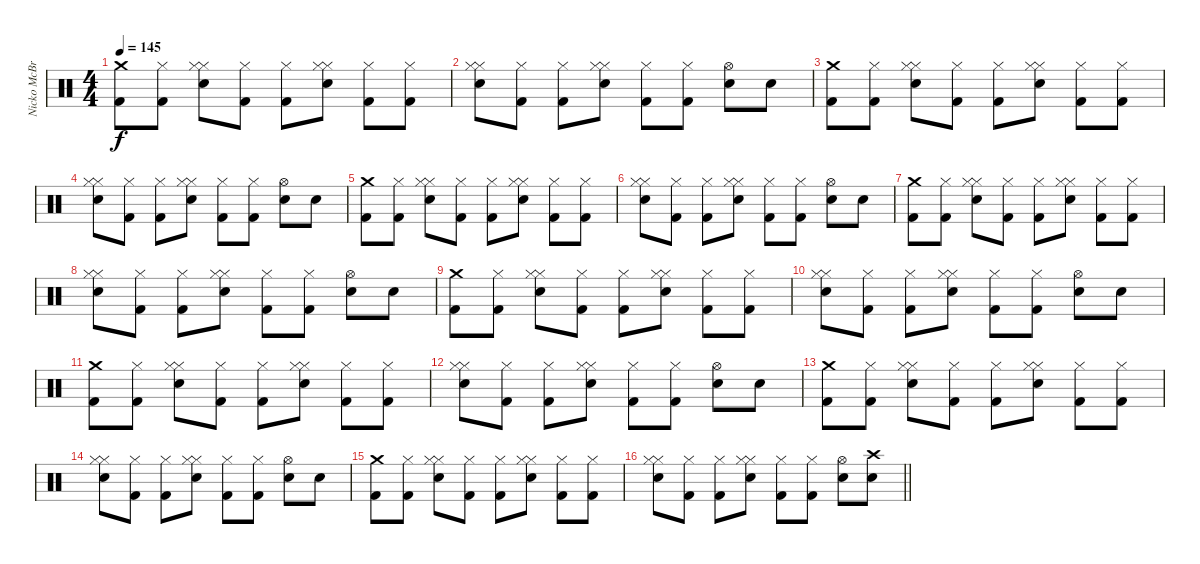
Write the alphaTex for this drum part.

\track ("Nicko McBrain" "Nicko McBr") {instrument percussion}
\staff {score}
\articulation defaults
\ts (4 4)
\tempo 145
\clef neutral
\ks c
("Crash medium (hit)" "Kick (hit) 2").8{dy f} ("Kick (hit) 2" "Hi-Hat (closed)").8 ("Snare (hit) 2" "Hi-Hat (closed)" "Hi-Hat (closed)").8 ("Kick (hit) 2" "Hi-Hat (closed)").8 ("Kick (hit) 2" "Hi-Hat (closed)").8 ("Snare (hit) 2" "Hi-Hat (closed)" "Hi-Hat (closed)").8 ("Kick (hit) 2" "Hi-Hat (closed)").8 ("Kick (hit) 2" "Hi-Hat (closed)").8 |
("Snare (hit) 2" "Hi-Hat (closed)" "Hi-Hat (closed)").8 ("Kick (hit) 2" "Hi-Hat (closed)").8 ("Kick (hit) 2" "Hi-Hat (closed)").8 ("Snare (hit) 2" "Hi-Hat (closed)" "Hi-Hat (closed)").8 ("Kick (hit) 2" "Hi-Hat (closed)").8 ("Kick (hit) 2" "Hi-Hat (closed)").8 ("Snare (hit) 2" "Hi-Hat (open)").8 "Snare (hit) 2".8 |
("Crash medium (hit)" "Kick (hit) 2").8 ("Kick (hit) 2" "Hi-Hat (closed)").8 ("Snare (hit) 2" "Hi-Hat (closed)" "Hi-Hat (closed)").8 ("Kick (hit) 2" "Hi-Hat (closed)").8 ("Kick (hit) 2" "Hi-Hat (closed)").8 ("Snare (hit) 2" "Hi-Hat (closed)" "Hi-Hat (closed)").8 ("Kick (hit) 2" "Hi-Hat (closed)").8 ("Kick (hit) 2" "Hi-Hat (closed)").8 |
("Snare (hit) 2" "Hi-Hat (closed)" "Hi-Hat (closed)").8 ("Kick (hit) 2" "Hi-Hat (closed)").8 ("Kick (hit) 2" "Hi-Hat (closed)").8 ("Snare (hit) 2" "Hi-Hat (closed)" "Hi-Hat (closed)").8 ("Kick (hit) 2" "Hi-Hat (closed)").8 ("Kick (hit) 2" "Hi-Hat (closed)").8 ("Snare (hit) 2" "Hi-Hat (open)").8 "Snare (hit) 2".8 |
("Crash medium (hit)" "Kick (hit) 2").8 ("Kick (hit) 2" "Hi-Hat (closed)").8 ("Snare (hit) 2" "Hi-Hat (closed)" "Hi-Hat (closed)").8 ("Kick (hit) 2" "Hi-Hat (closed)").8 ("Kick (hit) 2" "Hi-Hat (closed)").8 ("Snare (hit) 2" "Hi-Hat (closed)" "Hi-Hat (closed)").8 ("Kick (hit) 2" "Hi-Hat (closed)").8 ("Kick (hit) 2" "Hi-Hat (closed)").8 |
("Snare (hit) 2" "Hi-Hat (closed)" "Hi-Hat (closed)").8 ("Kick (hit) 2" "Hi-Hat (closed)").8 ("Kick (hit) 2" "Hi-Hat (closed)").8 ("Snare (hit) 2" "Hi-Hat (closed)" "Hi-Hat (closed)").8 ("Kick (hit) 2" "Hi-Hat (closed)").8 ("Kick (hit) 2" "Hi-Hat (closed)").8 ("Snare (hit) 2" "Hi-Hat (open)").8 "Snare (hit) 2".8 |
("Crash medium (hit)" "Kick (hit) 2").8 ("Kick (hit) 2" "Hi-Hat (closed)").8 ("Snare (hit) 2" "Hi-Hat (closed)" "Hi-Hat (closed)").8 ("Kick (hit) 2" "Hi-Hat (closed)").8 ("Kick (hit) 2" "Hi-Hat (closed)").8 ("Snare (hit) 2" "Hi-Hat (closed)" "Hi-Hat (closed)").8 ("Kick (hit) 2" "Hi-Hat (closed)").8 ("Kick (hit) 2" "Hi-Hat (closed)").8 |
("Snare (hit) 2" "Hi-Hat (closed)" "Hi-Hat (closed)").8 ("Kick (hit) 2" "Hi-Hat (closed)").8 ("Kick (hit) 2" "Hi-Hat (closed)").8 ("Snare (hit) 2" "Hi-Hat (closed)" "Hi-Hat (closed)").8 ("Kick (hit) 2" "Hi-Hat (closed)").8 ("Kick (hit) 2" "Hi-Hat (closed)").8 ("Snare (hit) 2" "Hi-Hat (open)").8 "Snare (hit) 2".8 |
("Crash medium (hit)" "Kick (hit) 2").8 ("Kick (hit) 2" "Hi-Hat (closed)").8 ("Snare (hit) 2" "Hi-Hat (closed)" "Hi-Hat (closed)").8 ("Kick (hit) 2" "Hi-Hat (closed)").8 ("Kick (hit) 2" "Hi-Hat (closed)").8 ("Snare (hit) 2" "Hi-Hat (closed)" "Hi-Hat (closed)").8 ("Kick (hit) 2" "Hi-Hat (closed)").8 ("Kick (hit) 2" "Hi-Hat (closed)").8 |
("Snare (hit) 2" "Hi-Hat (closed)" "Hi-Hat (closed)").8 ("Kick (hit) 2" "Hi-Hat (closed)").8 ("Kick (hit) 2" "Hi-Hat (closed)").8 ("Snare (hit) 2" "Hi-Hat (closed)" "Hi-Hat (closed)").8 ("Kick (hit) 2" "Hi-Hat (closed)").8 ("Kick (hit) 2" "Hi-Hat (closed)").8 ("Snare (hit) 2" "Hi-Hat (open)").8 "Snare (hit) 2".8 |
("Crash medium (hit)" "Kick (hit) 2").8 ("Kick (hit) 2" "Hi-Hat (closed)").8 ("Snare (hit) 2" "Hi-Hat (closed)" "Hi-Hat (closed)").8 ("Kick (hit) 2" "Hi-Hat (closed)").8 ("Kick (hit) 2" "Hi-Hat (closed)").8 ("Snare (hit) 2" "Hi-Hat (closed)" "Hi-Hat (closed)").8 ("Kick (hit) 2" "Hi-Hat (closed)").8 ("Kick (hit) 2" "Hi-Hat (closed)").8 |
("Snare (hit) 2" "Hi-Hat (closed)" "Hi-Hat (closed)").8 ("Kick (hit) 2" "Hi-Hat (closed)").8 ("Kick (hit) 2" "Hi-Hat (closed)").8 ("Snare (hit) 2" "Hi-Hat (closed)" "Hi-Hat (closed)").8 ("Kick (hit) 2" "Hi-Hat (closed)").8 ("Kick (hit) 2" "Hi-Hat (closed)").8 ("Snare (hit) 2" "Hi-Hat (open)").8 "Snare (hit) 2".8 |
("Crash medium (hit)" "Kick (hit) 2").8 ("Kick (hit) 2" "Hi-Hat (closed)").8 ("Snare (hit) 2" "Hi-Hat (closed)" "Hi-Hat (closed)").8 ("Kick (hit) 2" "Hi-Hat (closed)").8 ("Kick (hit) 2" "Hi-Hat (closed)").8 ("Snare (hit) 2" "Hi-Hat (closed)" "Hi-Hat (closed)").8 ("Kick (hit) 2" "Hi-Hat (closed)").8 ("Kick (hit) 2" "Hi-Hat (closed)").8 |
("Snare (hit) 2" "Hi-Hat (closed)" "Hi-Hat (closed)").8 ("Kick (hit) 2" "Hi-Hat (closed)").8 ("Kick (hit) 2" "Hi-Hat (closed)").8 ("Snare (hit) 2" "Hi-Hat (closed)" "Hi-Hat (closed)").8 ("Kick (hit) 2" "Hi-Hat (closed)").8 ("Kick (hit) 2" "Hi-Hat (closed)").8 ("Snare (hit) 2" "Hi-Hat (open)").8 "Snare (hit) 2".8 |
("Crash medium (hit)" "Kick (hit) 2").8 ("Kick (hit) 2" "Hi-Hat (closed)").8 ("Snare (hit) 2" "Hi-Hat (closed)" "Hi-Hat (closed)").8 ("Kick (hit) 2" "Hi-Hat (closed)").8 ("Kick (hit) 2" "Hi-Hat (closed)").8 ("Snare (hit) 2" "Hi-Hat (closed)" "Hi-Hat (closed)").8 ("Kick (hit) 2" "Hi-Hat (closed)").8 ("Kick (hit) 2" "Hi-Hat (closed)").8 |
\barLineRight lightlight
("Snare (hit) 2" "Hi-Hat (closed)" "Hi-Hat (closed)").8 ("Kick (hit) 2" "Hi-Hat (closed)").8 ("Kick (hit) 2" "Hi-Hat (closed)").8 ("Snare (hit) 2" "Hi-Hat (closed)" "Hi-Hat (closed)").8 ("Kick (hit) 2" "Hi-Hat (closed)").8 ("Kick (hit) 2" "Hi-Hat (closed)").8 ("Snare (hit) 2" "Hi-Hat (open)").8 ("Crash high (hit)" "Snare (hit) 2").8
